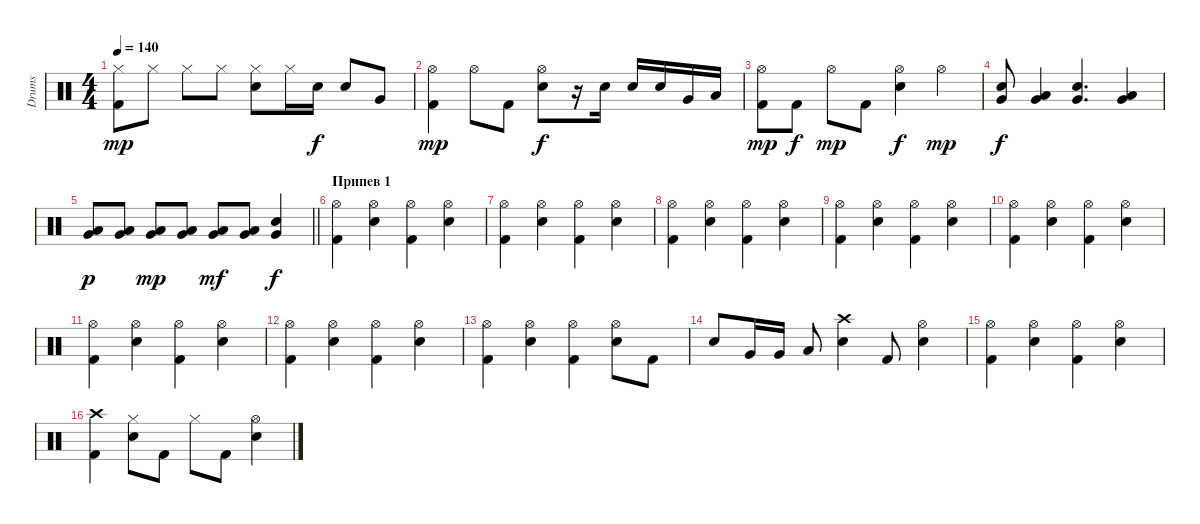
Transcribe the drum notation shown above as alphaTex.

\track ("Drums" "Drums") {instrument percussion}
\staff {score}
\articulation defaults
\ts (4 4)
\tempo 140
\clef neutral
\ks c
("Hi-Hat (closed)" "Kick (hit) 2").8{dy mp} "Hi-Hat (closed)".8 "Hi-Hat (closed)".8 "Hi-Hat (closed)".8 ("Hi-Hat (closed)" "Snare (hit) 2").8 "Hi-Hat (closed)".16 "Snare (hit) 2".16{dy f} "Snare (hit) 2".8 "Very Low Tom (hit)".8 |
("Hi-Hat (open)" "Kick (hit) 2").4{dy mp} "Hi-Hat (open)".8 "Kick (hit) 2".8 ("Hi-Hat (open)" "Snare (hit) 2").8{dy f} r.16 "Snare (hit) 2".16 "Snare (hit) 2".16 "Snare (hit) 2".16 "Very Low Tom (hit)".16 "Low Floor Tom (hit)".16 |
("Hi-Hat (open)" "Kick (hit) 2").8{dy mp} "Kick (hit) 2".8{dy f} "Hi-Hat (open)".8{dy mp} "Kick (hit) 2".8 ("Hi-Hat (open)" "Snare (hit) 2").4{dy f} "Hi-Hat (open)".4{dy mp} |
("Snare (hit) 2" "Very Low Tom (hit)").8{dy f} ("Very Low Tom (hit)" "Low Floor Tom (hit)").4 ("Snare (hit) 2" "Very Low Tom (hit)").4{d} ("Very Low Tom (hit)" "Low Floor Tom (hit)").4 |
\barLineRight lightlight
("Very Low Tom (hit)" "Low Floor Tom (hit)").8{dy p} ("Very Low Tom (hit)" "Low Floor Tom (hit)").8 ("Very Low Tom (hit)" "Low Floor Tom (hit)").8{dy mp} ("Very Low Tom (hit)" "Low Floor Tom (hit)").8 ("Very Low Tom (hit)" "Low Floor Tom (hit)").8{dy mf} ("Very Low Tom (hit)" "Low Floor Tom (hit)").8 ("Snare (hit) 2" "Very Low Tom (hit)").4{dy f} |
\section ("" "Припев 1")
("Hi-Hat (open)" "Kick (hit) 2").4 ("Hi-Hat (open)" "Snare (hit) 2").4 ("Hi-Hat (open)" "Kick (hit) 2").4 ("Hi-Hat (open)" "Snare (hit) 2").4 |
("Hi-Hat (open)" "Kick (hit) 2").4 ("Hi-Hat (open)" "Snare (hit) 2").4 ("Hi-Hat (open)" "Kick (hit) 2").4 ("Hi-Hat (open)" "Snare (hit) 2").4 |
("Hi-Hat (open)" "Kick (hit) 2").4 ("Hi-Hat (open)" "Snare (hit) 2").4 ("Hi-Hat (open)" "Kick (hit) 2").4 ("Hi-Hat (open)" "Snare (hit) 2").4 |
("Hi-Hat (open)" "Kick (hit) 2").4 ("Hi-Hat (open)" "Snare (hit) 2").4 ("Hi-Hat (open)" "Kick (hit) 2").4 ("Hi-Hat (open)" "Snare (hit) 2").4 |
("Hi-Hat (open)" "Kick (hit) 2").4 ("Hi-Hat (open)" "Snare (hit) 2").4 ("Hi-Hat (open)" "Kick (hit) 2").4 ("Hi-Hat (open)" "Snare (hit) 2").4 |
("Hi-Hat (open)" "Kick (hit) 2").4 ("Hi-Hat (open)" "Snare (hit) 2").4 ("Hi-Hat (open)" "Kick (hit) 2").4 ("Hi-Hat (open)" "Snare (hit) 2").4 |
("Hi-Hat (open)" "Kick (hit) 2").4 ("Hi-Hat (open)" "Snare (hit) 2").4 ("Hi-Hat (open)" "Kick (hit) 2").4 ("Hi-Hat (open)" "Snare (hit) 2").4 |
("Hi-Hat (open)" "Kick (hit) 2").4 ("Hi-Hat (open)" "Snare (hit) 2").4 ("Hi-Hat (open)" "Kick (hit) 2").4 ("Hi-Hat (open)" "Snare (hit) 2").8 "Kick (hit) 2".8 |
"Snare (hit) 2".8 "Very Low Tom (hit)".16 "Very Low Tom (hit)".16 "Low Floor Tom (hit)".8 ("Crash high (hit)" "Snare (hit) 2").4 "Kick (hit) 2".8 ("Hi-Hat (open)" "Snare (hit) 2").4 |
("Hi-Hat (open)" "Kick (hit) 2").4 ("Hi-Hat (open)" "Snare (hit) 2").4 ("Hi-Hat (open)" "Kick (hit) 2").4 ("Hi-Hat (open)" "Snare (hit) 2").4 |
("Crash high (hit)" "Kick (hit) 2").4 ("Hi-Hat (closed)" "Snare (hit) 2").8 "Kick (hit) 2".8 "Hi-Hat (closed)".8 "Kick (hit) 2".8 ("Hi-Hat (open)" "Snare (hit) 2").4
